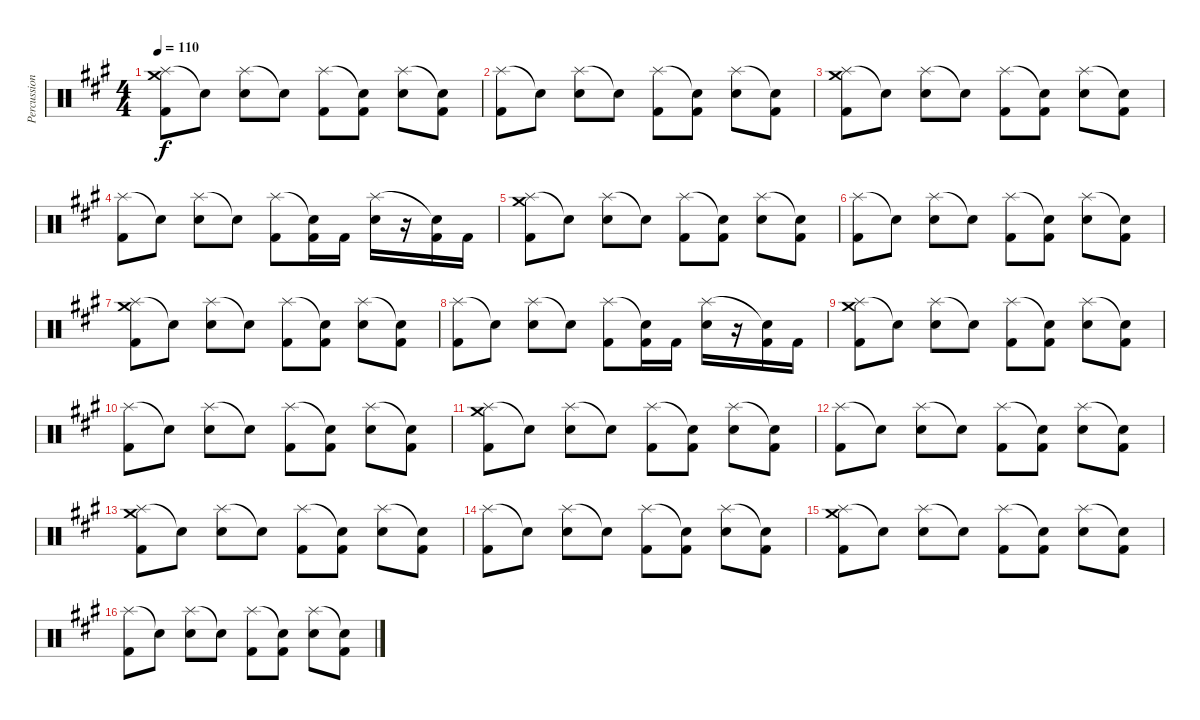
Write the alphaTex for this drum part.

\track ("Percussion" "Percussion") {instrument percussion}
\staff {score}
\articulation defaults
\ts (4 4)
\tempo 110
\clef neutral
\ks a
("Splash (hit)" "Crash medium (hit)" "Kick (hit) 2").8{dy f} "Snare (hit)"{t}.8 ("Splash (hit)" "Electric Snare (hit)").8 "Snare (hit)"{t}.8 ("Splash (hit)" "Kick (hit) 2").8 ("Snare (hit)"{t} "Kick (hit) 2").8 ("Splash (hit)" "Electric Snare (hit)").8 ("Snare (hit)"{t} "Kick (hit) 2").8 |
("Splash (hit)" "Kick (hit) 2").8 "Snare (hit)"{t}.8 ("Splash (hit)" "Electric Snare (hit)").8 "Snare (hit)"{t}.8 ("Splash (hit)" "Kick (hit) 2").8 ("Snare (hit)"{t} "Kick (hit) 2").8 ("Splash (hit)" "Electric Snare (hit)").8 ("Snare (hit)"{t} "Kick (hit) 2").8 |
("Splash (hit)" "Crash medium (hit)" "Kick (hit) 2").8 "Snare (hit)"{t}.8 ("Splash (hit)" "Electric Snare (hit)").8 "Snare (hit)"{t}.8 ("Splash (hit)" "Kick (hit) 2").8 ("Snare (hit)"{t} "Kick (hit) 2").8 ("Splash (hit)" "Electric Snare (hit)").8 ("Snare (hit)"{t} "Kick (hit) 2").8 |
("Splash (hit)" "Kick (hit) 2").8 "Snare (hit)"{t}.8 ("Splash (hit)" "Electric Snare (hit)").8 "Snare (hit)"{t}.8 ("Splash (hit)" "Kick (hit) 2").8 ("Snare (hit)"{t} "Kick (hit) 2").16 "Kick (hit) 2".16 ("Splash (hit)" "Electric Snare (hit)").16 r.16 ("Snare (hit)"{t} "Kick (hit) 2").16 "Kick (hit) 2".16 |
("Splash (hit)" "Crash medium (hit)" "Kick (hit) 2").8 "Snare (hit)"{t}.8 ("Splash (hit)" "Electric Snare (hit)").8 "Snare (hit)"{t}.8 ("Splash (hit)" "Kick (hit) 2").8 ("Snare (hit)"{t} "Kick (hit) 2").8 ("Splash (hit)" "Electric Snare (hit)").8 ("Snare (hit)"{t} "Kick (hit) 2").8 |
("Splash (hit)" "Kick (hit) 2").8 "Snare (hit)"{t}.8 ("Splash (hit)" "Electric Snare (hit)").8 "Snare (hit)"{t}.8 ("Splash (hit)" "Kick (hit) 2").8 ("Snare (hit)"{t} "Kick (hit) 2").8 ("Splash (hit)" "Electric Snare (hit)").8 ("Snare (hit)"{t} "Kick (hit) 2").8 |
("Splash (hit)" "Crash medium (hit)" "Kick (hit) 2").8 "Snare (hit)"{t}.8 ("Splash (hit)" "Electric Snare (hit)").8 "Snare (hit)"{t}.8 ("Splash (hit)" "Kick (hit) 2").8 ("Snare (hit)"{t} "Kick (hit) 2").8 ("Splash (hit)" "Electric Snare (hit)").8 ("Snare (hit)"{t} "Kick (hit) 2").8 |
("Splash (hit)" "Kick (hit) 2").8 "Snare (hit)"{t}.8 ("Splash (hit)" "Electric Snare (hit)").8 "Snare (hit)"{t}.8 ("Splash (hit)" "Kick (hit) 2").8 ("Snare (hit)"{t} "Kick (hit) 2").16 "Kick (hit) 2".16 ("Splash (hit)" "Electric Snare (hit)").16 r.16 ("Snare (hit)"{t} "Kick (hit) 2").16 "Kick (hit) 2".16 |
("Splash (hit)" "Crash medium (hit)" "Kick (hit) 2").8 "Snare (hit)"{t}.8 ("Splash (hit)" "Electric Snare (hit)").8 "Snare (hit)"{t}.8 ("Splash (hit)" "Kick (hit) 2").8 ("Snare (hit)"{t} "Kick (hit) 2").8 ("Splash (hit)" "Electric Snare (hit)").8 ("Snare (hit)"{t} "Kick (hit) 2").8 |
("Splash (hit)" "Kick (hit) 2").8 "Snare (hit)"{t}.8 ("Splash (hit)" "Electric Snare (hit)").8 "Snare (hit)"{t}.8 ("Splash (hit)" "Kick (hit) 2").8 ("Snare (hit)"{t} "Kick (hit) 2").8 ("Splash (hit)" "Electric Snare (hit)").8 ("Snare (hit)"{t} "Kick (hit) 2").8 |
("Splash (hit)" "Crash medium (hit)" "Kick (hit) 2").8 "Snare (hit)"{t}.8 ("Splash (hit)" "Electric Snare (hit)").8 "Snare (hit)"{t}.8 ("Splash (hit)" "Kick (hit) 2").8 ("Snare (hit)"{t} "Kick (hit) 2").8 ("Splash (hit)" "Electric Snare (hit)").8 ("Snare (hit)"{t} "Kick (hit) 2").8 |
("Splash (hit)" "Kick (hit) 2").8 "Snare (hit)"{t}.8 ("Splash (hit)" "Electric Snare (hit)").8 "Snare (hit)"{t}.8 ("Splash (hit)" "Kick (hit) 2").8 ("Snare (hit)"{t} "Kick (hit) 2").8 ("Splash (hit)" "Electric Snare (hit)").8 ("Snare (hit)"{t} "Kick (hit) 2").8 |
("Splash (hit)" "Crash medium (hit)" "Kick (hit) 2").8 "Snare (hit)"{t}.8 ("Splash (hit)" "Electric Snare (hit)").8 "Snare (hit)"{t}.8 ("Splash (hit)" "Kick (hit) 2").8 ("Snare (hit)"{t} "Kick (hit) 2").8 ("Splash (hit)" "Electric Snare (hit)").8 ("Snare (hit)"{t} "Kick (hit) 2").8 |
("Splash (hit)" "Kick (hit) 2").8 "Snare (hit)"{t}.8 ("Splash (hit)" "Electric Snare (hit)").8 "Snare (hit)"{t}.8 ("Splash (hit)" "Kick (hit) 2").8 ("Snare (hit)"{t} "Kick (hit) 2").8 ("Splash (hit)" "Electric Snare (hit)").8 ("Snare (hit)"{t} "Kick (hit) 2").8 |
("Splash (hit)" "Crash medium (hit)" "Kick (hit) 2").8 "Snare (hit)"{t}.8 ("Splash (hit)" "Electric Snare (hit)").8 "Snare (hit)"{t}.8 ("Splash (hit)" "Kick (hit) 2").8 ("Snare (hit)"{t} "Kick (hit) 2").8 ("Splash (hit)" "Electric Snare (hit)").8 ("Snare (hit)"{t} "Kick (hit) 2").8 |
("Splash (hit)" "Kick (hit) 2").8 "Snare (hit)"{t}.8 ("Splash (hit)" "Electric Snare (hit)").8 "Snare (hit)"{t}.8 ("Splash (hit)" "Kick (hit) 2").8 ("Snare (hit)"{t} "Kick (hit) 2").8 ("Splash (hit)" "Electric Snare (hit)").8 ("Snare (hit)"{t} "Kick (hit) 2").8
